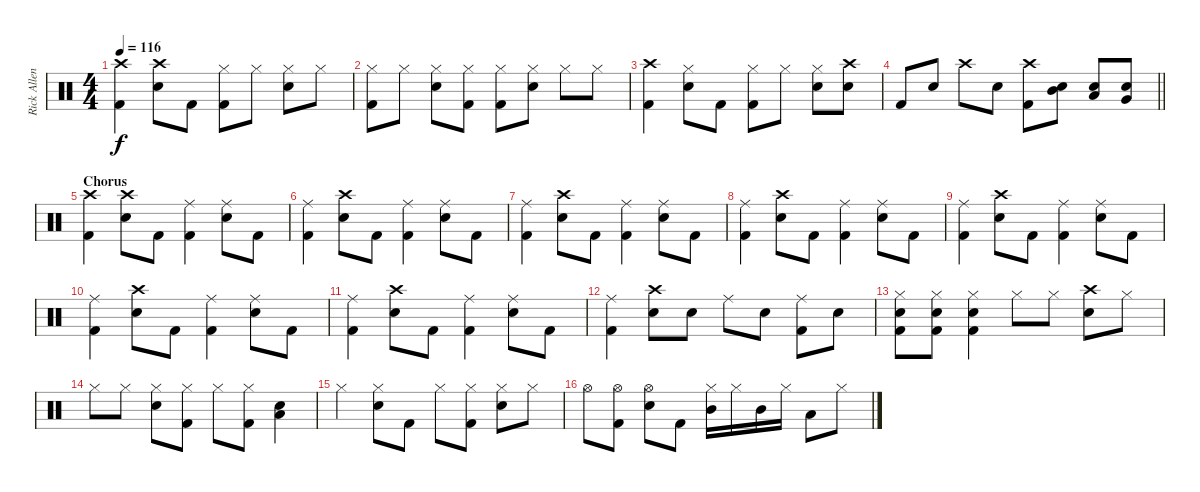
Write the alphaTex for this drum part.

\track ("Rick Allen" "Rick Allen") {instrument percussion}
\staff {score}
\articulation defaults
\ts (4 4)
\tempo 116
\clef neutral
\ks c
("Crash high (hit)" "Kick (hit) 2").4{dy f} ("Crash high (hit)" "Electric Snare (hit)").8 "Kick (hit) 2".8 ("Hi-Hat (closed)" "Kick (hit) 2").8 "Hi-Hat (closed)".8 ("Hi-Hat (closed)" "Electric Snare (hit)").8 "Hi-Hat (closed)".8 |
("Hi-Hat (closed)" "Kick (hit) 2").8 "Hi-Hat (closed)".8 ("Hi-Hat (closed)" "Electric Snare (hit)").8 ("Hi-Hat (closed)" "Kick (hit) 2").8 ("Hi-Hat (closed)" "Kick (hit) 2").8 ("Hi-Hat (closed)" "Electric Snare (hit)").8 "Hi-Hat (closed)".8 "Hi-Hat (closed)".8 |
("Crash high (hit)" "Kick (hit) 2").4 ("Hi-Hat (closed)" "Electric Snare (hit)").8 "Kick (hit) 2".8 ("Hi-Hat (closed)" "Kick (hit) 2").8 "Hi-Hat (closed)".8 ("Hi-Hat (closed)" "Electric Snare (hit)").8 ("Crash high (hit)" "Electric Snare (hit)").8 |
\barLineRight lightlight "Kick (hit) 2".8 "Electric Snare (hit)".8 "Crash high (hit)".8 "Electric Snare (hit)".8
("Crash high (hit)" "Kick (hit) 2").8 ("Mid Tom (hit)" "Electric Snare (hit)").8 ("Low Tom (hit)" "Electric Snare (hit)").8 ("Electric Snare (hit)" "Very Low Tom (hit)").8 |
\section ("" "Chorus")
("Crash high (hit)" "Kick (hit) 2").4 ("Crash high (hit)" "Electric Snare (hit)").8 "Kick (hit) 2".8 ("Ride (middle)" "Kick (hit) 2").4 ("Ride (middle)" "Electric Snare (hit)").8 "Kick (hit) 2".8 |
("Ride (middle)" "Kick (hit) 2").4 ("Crash high (hit)" "Electric Snare (hit)").8 "Kick (hit) 2".8 ("Ride (middle)" "Kick (hit) 2").4 ("Ride (middle)" "Electric Snare (hit)").8 "Kick (hit) 2".8 |
("Ride (middle)" "Kick (hit) 2").4 ("Crash high (hit)" "Electric Snare (hit)").8 "Kick (hit) 2".8 ("Ride (middle)" "Kick (hit) 2").4 ("Ride (middle)" "Electric Snare (hit)").8 "Kick (hit) 2".8 |
("Ride (middle)" "Kick (hit) 2").4 ("Crash high (hit)" "Electric Snare (hit)").8 "Kick (hit) 2".8 ("Ride (middle)" "Kick (hit) 2").4 ("Ride (middle)" "Electric Snare (hit)").8 "Kick (hit) 2".8 |
("Ride (middle)" "Kick (hit) 2").4 ("Crash high (hit)" "Electric Snare (hit)").8 "Kick (hit) 2".8 ("Ride (middle)" "Kick (hit) 2").4 ("Ride (middle)" "Electric Snare (hit)").8 "Kick (hit) 2".8 |
("Ride (middle)" "Kick (hit) 2").4 ("Crash high (hit)" "Electric Snare (hit)").8 "Kick (hit) 2".8 ("Ride (middle)" "Kick (hit) 2").4 ("Ride (middle)" "Electric Snare (hit)").8 "Kick (hit) 2".8 |
("Ride (middle)" "Kick (hit) 2").4 ("Crash high (hit)" "Electric Snare (hit)").8 "Kick (hit) 2".8 ("Ride (middle)" "Kick (hit) 2").4 ("Ride (middle)" "Electric Snare (hit)").8 "Kick (hit) 2".8 |
("Ride (middle)" "Kick (hit) 2").4 ("Crash high (hit)" "Electric Snare (hit)").8 "Electric Snare (hit)".8 "Ride (middle)".8 "Electric Snare (hit)".8 ("Ride (middle)" "Kick (hit) 2").8 "Electric Snare (hit)".8 |
("Hi-Hat (closed)" "Electric Snare (hit)" "Kick (hit) 2").8 ("Hi-Hat (closed)" "Electric Snare (hit)" "Kick (hit) 2").8 ("Hi-Hat (closed)" "Electric Snare (hit)" "Kick (hit) 2").4 "Hi-Hat (closed)".8 "Hi-Hat (closed)".8 ("Crash high (hit)" "Electric Snare (hit)").8 "Hi-Hat (closed)".8 |
"Hi-Hat (closed)".8 "Hi-Hat (closed)".8 ("Hi-Hat (closed)" "Electric Snare (hit)").8 ("Hi-Hat (closed)" "Kick (hit) 2").8 "Hi-Hat (closed)".8 ("Hi-Hat (closed)" "Kick (hit) 2").8 ("Low Tom (hit)" "Electric Snare (hit)").4 |
"Hi-Hat (closed)".4 ("Hi-Hat (closed)" "Electric Snare (hit)").8 "Kick (hit) 2".8 "Hi-Hat (closed)".8 ("Hi-Hat (closed)" "Kick (hit) 2").8 ("Hi-Hat (closed)" "Electric Snare (hit)").8 "Hi-Hat (closed)".8 |
"Hi-Hat (open)".8 ("Hi-Hat (open)" "Kick (hit) 2").8 ("Hi-Hat (open)" "Electric Snare (hit)").8 "Kick (hit) 2".8 ("Hi-Hat (closed)" "Mid Tom (hit)").16 "Hi-Hat (closed)".16 "Mid Tom (hit)".16 "Hi-Hat (closed)".16 "Low Tom (hit)".8 "Hi-Hat (closed)".8
